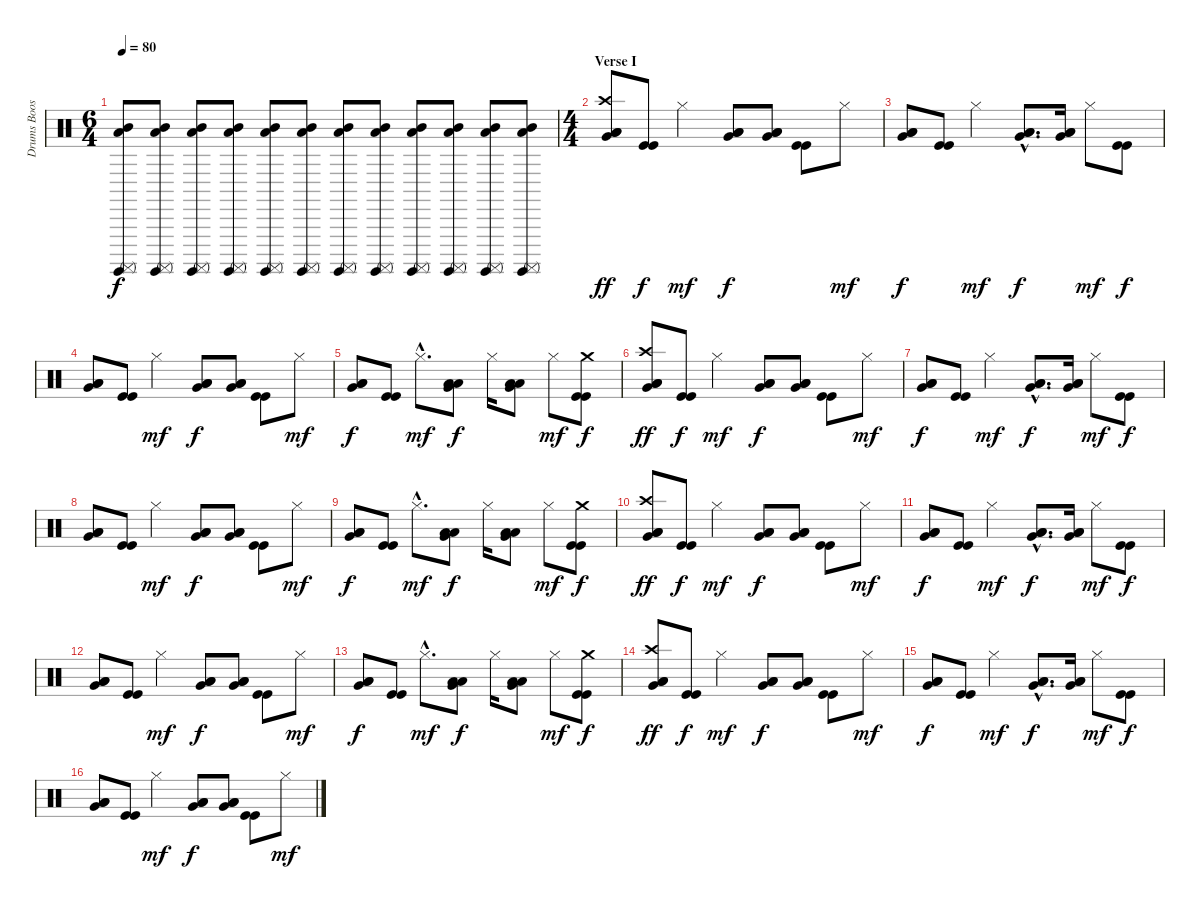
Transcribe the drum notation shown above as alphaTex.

\track ("Drums Boost" "Drums Boos") {instrument percussion}
\staff {score}
\articulation defaults
\ts (6 4)
\tempo 80
\clef neutral
\ks c
("Surdo (hit)" "Low Tom (hit)" "Mid Tom (hit)" "Surdo (mute)").8{dy f volume 0} ("Surdo (hit)" "Low Tom (hit)" "Mid Tom (hit)" "Surdo (mute)").8{volume 16} ("Surdo (hit)" "Low Tom (hit)" "Mid Tom (hit)" "Surdo (mute)").8 ("Surdo (hit)" "Low Tom (hit)" "Mid Tom (hit)" "Surdo (mute)").8 ("Surdo (hit)" "Low Tom (hit)" "Mid Tom (hit)" "Surdo (mute)").8 ("Surdo (hit)" "Low Tom (hit)" "Mid Tom (hit)" "Surdo (mute)").8 ("Surdo (hit)" "Low Tom (hit)" "Mid Tom (hit)" "Surdo (mute)").8 ("Surdo (hit)" "Low Tom (hit)" "Mid Tom (hit)" "Surdo (mute)").8 ("Surdo (hit)" "Low Tom (hit)" "Mid Tom (hit)" "Surdo (mute)").8 ("Surdo (hit)" "Low Tom (hit)" "Mid Tom (hit)" "Surdo (mute)").8 ("Surdo (hit)" "Low Tom (hit)" "Mid Tom (hit)" "Surdo (mute)").8 ("Surdo (hit)" "Low Tom (hit)" "Mid Tom (hit)" "Surdo (mute)").8 |
\ts (4 4)
\section ("" "Verse I")
("Crash high (hit)" "Very Low Tom (hit)" "Low Floor Tom (hit)" "Low Tom (hit)").8{bd 60 dy ff} ("Kick (hit)" "Kick (hit)").8{dy f} "Hi-Hat (closed)".4{dy mf} ("Very Low Tom (hit)" "Low Floor Tom (hit)" "Low Tom (hit)").8{dy f} ("Very Low Tom (hit)" "Low Floor Tom (hit)" "Low Tom (hit)").8 ("Kick (hit)" "Kick (hit)").8 "Hi-Hat (closed)".8{dy mf} |
("Very Low Tom (hit)" "Low Floor Tom (hit)" "Low Tom (hit)").8{dy f} ("Kick (hit)" "Kick (hit)").8 "Hi-Hat (closed)".4{dy mf} ("Very Low Tom (hit)"{hac} "Low Floor Tom (hit)"{hac} "Low Tom (hit)"{hac}).8{d dy f} ("Very Low Tom (hit)" "Low Floor Tom (hit)" "Low Tom (hit)").16 "Hi-Hat (closed)".8{dy mf} ("Kick (hit)" "Kick (hit)").8{dy f} |
("Very Low Tom (hit)" "Low Floor Tom (hit)" "Low Tom (hit)").8 ("Kick (hit)" "Kick (hit)").8 "Hi-Hat (closed)".4{dy mf} ("Very Low Tom (hit)" "Low Floor Tom (hit)" "Low Tom (hit)").8{dy f} ("Very Low Tom (hit)" "Low Floor Tom (hit)" "Low Tom (hit)").8 ("Kick (hit)" "Kick (hit)").8 "Hi-Hat (closed)".8{dy mf} |
("Very Low Tom (hit)" "Low Floor Tom (hit)" "Low Tom (hit)").8{dy f} ("Kick (hit)" "Kick (hit)").8 "Hi-Hat (closed)"{hac}.8{d dy mf} ("Very Low Tom (hit)" "Low Floor Tom (hit)" "Low Tom (hit)").8{dy f} "Hi-Hat (closed)".16 ("Very Low Tom (hit)" "Low Floor Tom (hit)" "Low Tom (hit)").8 "Hi-Hat (closed)".8{dy mf} ("Crash medium (hit)" "Kick (hit)" "Kick (hit)").8{dy f} |
("Crash high (hit)" "Very Low Tom (hit)" "Low Floor Tom (hit)" "Low Tom (hit)").8{bd 60 dy ff} ("Kick (hit)" "Kick (hit)").8{dy f} "Hi-Hat (closed)".4{dy mf} ("Very Low Tom (hit)" "Low Floor Tom (hit)" "Low Tom (hit)").8{dy f} ("Very Low Tom (hit)" "Low Floor Tom (hit)" "Low Tom (hit)").8 ("Kick (hit)" "Kick (hit)").8 "Hi-Hat (closed)".8{dy mf} |
("Very Low Tom (hit)" "Low Floor Tom (hit)" "Low Tom (hit)").8{dy f} ("Kick (hit)" "Kick (hit)").8 "Hi-Hat (closed)".4{dy mf} ("Very Low Tom (hit)"{hac} "Low Floor Tom (hit)"{hac} "Low Tom (hit)"{hac}).8{d dy f} ("Very Low Tom (hit)" "Low Floor Tom (hit)" "Low Tom (hit)").16 "Hi-Hat (closed)".8{dy mf} ("Kick (hit)" "Kick (hit)").8{dy f} |
("Very Low Tom (hit)" "Low Floor Tom (hit)" "Low Tom (hit)").8 ("Kick (hit)" "Kick (hit)").8 "Hi-Hat (closed)".4{dy mf} ("Very Low Tom (hit)" "Low Floor Tom (hit)" "Low Tom (hit)").8{dy f} ("Very Low Tom (hit)" "Low Floor Tom (hit)" "Low Tom (hit)").8 ("Kick (hit)" "Kick (hit)").8 "Hi-Hat (closed)".8{dy mf} |
("Very Low Tom (hit)" "Low Floor Tom (hit)" "Low Tom (hit)").8{dy f} ("Kick (hit)" "Kick (hit)").8 "Hi-Hat (closed)"{hac}.8{d dy mf} ("Very Low Tom (hit)" "Low Floor Tom (hit)" "Low Tom (hit)").8{dy f} "Hi-Hat (closed)".16 ("Very Low Tom (hit)" "Low Floor Tom (hit)" "Low Tom (hit)").8 "Hi-Hat (closed)".8{dy mf} ("Crash medium (hit)" "Kick (hit)" "Kick (hit)").8{dy f} |
("Crash high (hit)" "Very Low Tom (hit)" "Low Floor Tom (hit)" "Low Tom (hit)").8{bd 60 dy ff} ("Kick (hit)" "Kick (hit)").8{dy f} "Hi-Hat (closed)".4{dy mf} ("Very Low Tom (hit)" "Low Floor Tom (hit)" "Low Tom (hit)").8{dy f} ("Very Low Tom (hit)" "Low Floor Tom (hit)" "Low Tom (hit)").8 ("Kick (hit)" "Kick (hit)").8 "Hi-Hat (closed)".8{dy mf} |
("Very Low Tom (hit)" "Low Floor Tom (hit)" "Low Tom (hit)").8{dy f} ("Kick (hit)" "Kick (hit)").8 "Hi-Hat (closed)".4{dy mf} ("Very Low Tom (hit)"{hac} "Low Floor Tom (hit)"{hac} "Low Tom (hit)"{hac}).8{d dy f} ("Very Low Tom (hit)" "Low Floor Tom (hit)" "Low Tom (hit)").16 "Hi-Hat (closed)".8{dy mf} ("Kick (hit)" "Kick (hit)").8{dy f} |
("Very Low Tom (hit)" "Low Floor Tom (hit)" "Low Tom (hit)").8 ("Kick (hit)" "Kick (hit)").8 "Hi-Hat (closed)".4{dy mf} ("Very Low Tom (hit)" "Low Floor Tom (hit)" "Low Tom (hit)").8{dy f} ("Very Low Tom (hit)" "Low Floor Tom (hit)" "Low Tom (hit)").8 ("Kick (hit)" "Kick (hit)").8 "Hi-Hat (closed)".8{dy mf} |
("Very Low Tom (hit)" "Low Floor Tom (hit)" "Low Tom (hit)").8{dy f} ("Kick (hit)" "Kick (hit)").8 "Hi-Hat (closed)"{hac}.8{d dy mf} ("Very Low Tom (hit)" "Low Floor Tom (hit)" "Low Tom (hit)").8{dy f} "Hi-Hat (closed)".16 ("Very Low Tom (hit)" "Low Floor Tom (hit)" "Low Tom (hit)").8 "Hi-Hat (closed)".8{dy mf} ("Crash medium (hit)" "Kick (hit)" "Kick (hit)").8{dy f} |
("Crash high (hit)" "Very Low Tom (hit)" "Low Floor Tom (hit)" "Low Tom (hit)").8{bd 60 dy ff} ("Kick (hit)" "Kick (hit)").8{dy f} "Hi-Hat (closed)".4{dy mf} ("Very Low Tom (hit)" "Low Floor Tom (hit)" "Low Tom (hit)").8{dy f} ("Very Low Tom (hit)" "Low Floor Tom (hit)" "Low Tom (hit)").8 ("Kick (hit)" "Kick (hit)").8 "Hi-Hat (closed)".8{dy mf} |
("Very Low Tom (hit)" "Low Floor Tom (hit)" "Low Tom (hit)").8{dy f} ("Kick (hit)" "Kick (hit)").8 "Hi-Hat (closed)".4{dy mf} ("Very Low Tom (hit)"{hac} "Low Floor Tom (hit)"{hac} "Low Tom (hit)"{hac}).8{d dy f} ("Very Low Tom (hit)" "Low Floor Tom (hit)" "Low Tom (hit)").16 "Hi-Hat (closed)".8{dy mf} ("Kick (hit)" "Kick (hit)").8{dy f} |
("Very Low Tom (hit)" "Low Floor Tom (hit)" "Low Tom (hit)").8 ("Kick (hit)" "Kick (hit)").8 "Hi-Hat (closed)".4{dy mf} ("Very Low Tom (hit)" "Low Floor Tom (hit)" "Low Tom (hit)").8{dy f} ("Very Low Tom (hit)" "Low Floor Tom (hit)" "Low Tom (hit)").8 ("Kick (hit)" "Kick (hit)").8 "Hi-Hat (closed)".8{dy mf}
